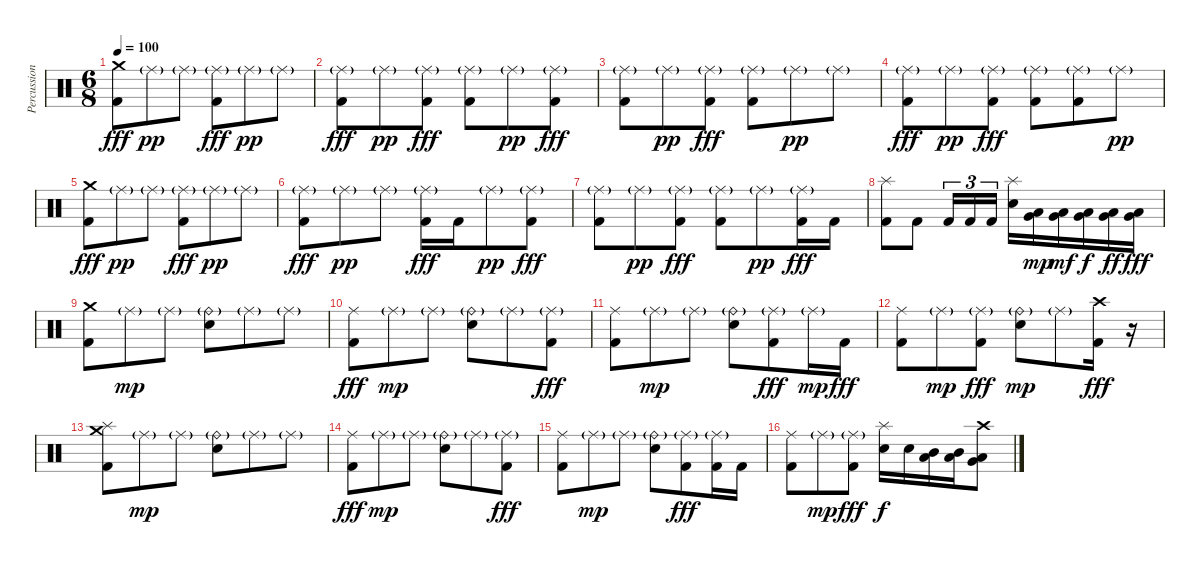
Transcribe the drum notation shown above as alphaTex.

\track ("Percussion" "Percussion") {instrument percussion}
\staff {score}
\articulation defaults
\ts (6 8)
\tempo 100
\clef neutral
\ks c
("Crash medium (hit)" "Kick (hit) 2").8{dy fff} "Ride (middle)"{g}.8{dy pp} "Ride (middle)"{g}.8 ("Ride (middle)"{g} "Kick (hit) 2").8{dy fff} "Ride (middle)"{g}.8{dy pp} "Ride (middle)"{g}.8 |
("Ride (middle)"{g} "Kick (hit) 2").8{dy fff} "Ride (middle)"{g}.8{dy pp} ("Ride (middle)"{g} "Kick (hit) 2").8{dy fff} ("Ride (middle)"{g} "Kick (hit) 2").8 "Ride (middle)"{g}.8{dy pp} ("Ride (middle)"{g} "Kick (hit) 2").8{dy fff} |
("Ride (middle)"{g} "Kick (hit) 2").8 "Ride (middle)"{g}.8{dy pp} ("Ride (middle)"{g} "Kick (hit) 2").8{dy fff} ("Ride (middle)"{g} "Kick (hit) 2").8 "Ride (middle)"{g}.8{dy pp} "Ride (middle)"{g}.8 |
("Ride (middle)"{g} "Kick (hit) 2").8{dy fff} "Ride (middle)"{g}.8{dy pp} ("Ride (middle)"{g} "Kick (hit) 2").8{dy fff} ("Ride (middle)"{g} "Kick (hit) 2").8 ("Ride (middle)"{g} "Kick (hit) 2").8 "Ride (middle)"{g}.8{dy pp} |
("Crash medium (hit)" "Kick (hit) 2").8{dy fff} "Ride (middle)"{g}.8{dy pp} "Ride (middle)"{g}.8 ("Ride (middle)"{g} "Kick (hit) 2").8{dy fff} "Ride (middle)"{g}.8{dy pp} "Ride (middle)"{g}.8 |
("Ride (middle)"{g} "Kick (hit) 2").8{dy fff} "Ride (middle)"{g}.8{dy pp} "Ride (middle)"{g}.8 ("Ride (middle)"{g} "Kick (hit) 2").16{dy fff} "Kick (hit) 2".16 "Ride (middle)"{g}.8{dy pp} ("Ride (middle)"{g} "Kick (hit) 2").8{dy fff} |
("Ride (middle)"{g} "Kick (hit) 2").8 "Ride (middle)"{g}.8{dy pp} ("Ride (middle)"{g} "Kick (hit) 2").8{dy fff} ("Ride (middle)"{g} "Kick (hit) 2").8 "Ride (middle)"{g}.8{dy pp} ("Ride (middle)"{g} "Kick (hit) 2").16{dy fff} "Kick (hit) 2".16 |
("Splash (hit)" "Kick (hit) 2").8 "Kick (hit) 2".8 "Kick (hit) 2".16{tu (3 2)} "Kick (hit) 2".16{tu (3 2)} "Kick (hit) 2".16{tu (3 2)} ("Splash (hit)" "Electric Snare (hit)").16 ("Low Floor Tom (hit)" "Very Low Tom (hit)").16{dy mp} ("Low Floor Tom (hit)" "Very Low Tom (hit)").16{dy mf} ("Low Floor Tom (hit)" "Very Low Tom (hit)").16{dy f} ("Low Floor Tom (hit)" "Very Low Tom (hit)").16{dy ff} ("Low Floor Tom (hit)" "Very Low Tom (hit)").16{dy fff} |
("Crash medium (hit)" "Kick (hit) 2").8 "Ride (middle)"{g}.8{dy mp} "Ride (middle)"{g}.8 ("Ride (bell)"{g} "Electric Snare (hit)").8 "Ride (middle)"{g}.8 "Ride (middle)"{g}.8 |
("Ride (middle)" "Kick (hit) 2").8{dy fff} "Ride (middle)"{g}.8{dy mp} "Ride (middle)"{g}.8 ("Ride (bell)"{g} "Electric Snare (hit)").8 "Ride (middle)"{g}.8 ("Ride (middle)"{g} "Kick (hit) 2").8{dy fff} |
("Ride (middle)" "Kick (hit) 2").8 "Ride (middle)"{g}.8{dy mp} "Ride (middle)"{g}.8 ("Ride (bell)"{g} "Electric Snare (hit)").8 ("Ride (middle)"{g} "Kick (hit) 2").8{dy fff} "Ride (middle)"{g}.16{dy mp} "Kick (hit) 2".16{dy fff} |
("Ride (middle)" "Kick (hit) 2").8 "Ride (middle)"{g}.8{dy mp} ("Ride (middle)"{g} "Kick (hit) 2").8{dy fff} ("Ride (bell)"{g} "Electric Snare (hit)").8{dy mp} "Ride (middle)"{g}.8 ("Crash high (hit)" "Kick (hit) 2").16{dy fff} r.16 |
("Splash (hit)" "Crash medium (hit)" "Kick (hit) 2").8 "Ride (middle)"{g}.8{dy mp} "Ride (middle)"{g}.8 ("Ride (bell)"{g} "Electric Snare (hit)").8 "Ride (middle)"{g}.8 "Ride (middle)"{g}.8 |
("Ride (middle)" "Kick (hit) 2").8{dy fff} "Ride (middle)"{g}.8{dy mp} "Ride (middle)"{g}.8 ("Ride (bell)"{g} "Electric Snare (hit)").8 "Ride (middle)"{g}.8 ("Ride (middle)"{g} "Kick (hit) 2").8{dy fff} |
("Ride (middle)" "Kick (hit) 2").8 "Ride (middle)"{g}.8{dy mp} "Ride (middle)"{g}.8 ("Ride (bell)"{g} "Electric Snare (hit)").8 ("Ride (middle)"{g} "Kick (hit) 2").8{dy fff} ("Ride (middle)"{g} "Kick (hit) 2").16 "Kick (hit) 2".16 |
("Ride (middle)" "Kick (hit) 2").8 "Ride (middle)"{g}.8{dy mp} ("Ride (middle)"{g} "Kick (hit) 2").8{dy fff} ("Splash (hit)" "Electric Snare (hit)").16{dy f} "Electric Snare (hit)".16 ("Mid Tom (hit)" "Low Floor Tom (hit)").16 ("Mid Tom (hit)" "Low Floor Tom (hit)").16 ("Crash high (hit)" "Very Low Tom (hit)" "Low Floor Tom (hit)").8
